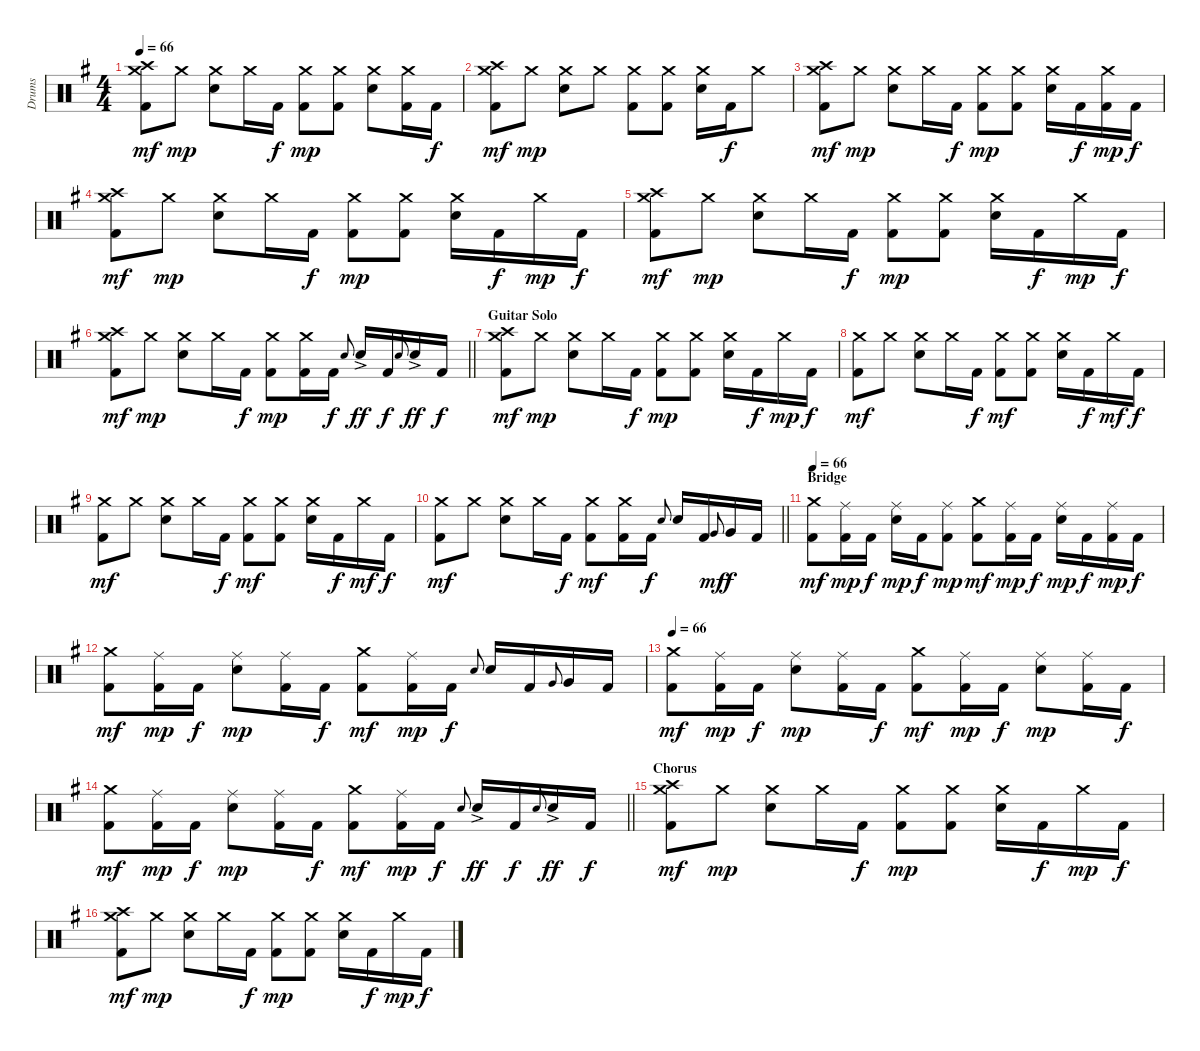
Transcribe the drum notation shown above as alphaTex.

\track ("Drums" "Drums") {instrument percussion}
\staff {score}
\articulation defaults
\ts (4 4)
\tempo 66
\clef neutral
\ks g
("Crash high (hit)" "Crash medium (hit)" "Kick (hit) 2").8{dy mf} "Crash medium (hit)".8{dy mp} ("Crash medium (hit)" "Electric Snare (hit)").8 "Crash medium (hit)".16 "Kick (hit) 2".16{dy f} ("Crash medium (hit)" "Kick (hit) 2").8{dy mp} ("Crash medium (hit)" "Kick (hit) 2").8 ("Crash medium (hit)" "Electric Snare (hit)").8 ("Crash medium (hit)" "Kick (hit) 2").16 "Kick (hit) 2".16{dy f} |
("Crash high (hit)" "Crash medium (hit)" "Kick (hit) 2").8{dy mf} "Crash medium (hit)".8{dy mp} ("Crash medium (hit)" "Electric Snare (hit)").8 "Crash medium (hit)".8 ("Crash medium (hit)" "Kick (hit) 2").8 ("Crash medium (hit)" "Kick (hit) 2").8 ("Crash medium (hit)" "Electric Snare (hit)").16 "Kick (hit) 2".16{dy f} "Crash medium (hit)".8 |
("Crash high (hit)" "Crash medium (hit)" "Kick (hit) 2").8{dy mf} "Crash medium (hit)".8{dy mp} ("Crash medium (hit)" "Electric Snare (hit)").8 "Crash medium (hit)".16 "Kick (hit) 2".16{dy f} ("Crash medium (hit)" "Kick (hit) 2").8{dy mp} ("Crash medium (hit)" "Kick (hit) 2").8 ("Crash medium (hit)" "Electric Snare (hit)").16 "Kick (hit) 2".16{dy f} ("Crash medium (hit)" "Kick (hit) 2").16{dy mp} "Kick (hit) 2".16{dy f} |
("Crash high (hit)" "Crash medium (hit)" "Kick (hit) 2").8{dy mf} "Crash medium (hit)".8{dy mp} ("Crash medium (hit)" "Electric Snare (hit)").8 "Crash medium (hit)".16 "Kick (hit) 2".16{dy f} ("Crash medium (hit)" "Kick (hit) 2").8{dy mp} ("Crash medium (hit)" "Kick (hit) 2").8 ("Crash medium (hit)" "Electric Snare (hit)").16 "Kick (hit) 2".16{dy f} "Crash medium (hit)".16{dy mp} "Kick (hit) 2".16{dy f} |
("Crash high (hit)" "Crash medium (hit)" "Kick (hit) 2").8{dy mf} "Crash medium (hit)".8{dy mp} ("Crash medium (hit)" "Electric Snare (hit)").8 "Crash medium (hit)".16 "Kick (hit) 2".16{dy f} ("Crash medium (hit)" "Kick (hit) 2").8{dy mp} ("Crash medium (hit)" "Kick (hit) 2").8 ("Crash medium (hit)" "Electric Snare (hit)").16 "Kick (hit) 2".16{dy f} "Crash medium (hit)".16{dy mp} "Kick (hit) 2".16{dy f} |
\barLineRight lightlight
("Crash high (hit)" "Crash medium (hit)" "Kick (hit) 2").8{dy mf} "Crash medium (hit)".8{dy mp} ("Crash medium (hit)" "Electric Snare (hit)").8 "Crash medium (hit)".16 "Kick (hit) 2".16{dy f} ("Crash medium (hit)" "Kick (hit) 2").8{dy mp} ("Crash medium (hit)" "Kick (hit) 2").16 "Kick (hit) 2".16{dy f} "Electric Snare (hit)".8{gr onbeat} "Electric Snare (hit)"{ac}.16{dy ff} "Kick (hit) 2".16{dy f} "Electric Snare (hit)".8{gr onbeat} "Electric Snare (hit)"{ac}.16{dy ff} "Kick (hit) 2".16{dy f} |
\section ("" "Guitar Solo")
("Crash high (hit)" "Crash medium (hit)" "Kick (hit) 2").8{dy mf} "Crash medium (hit)".8{dy mp} ("Crash medium (hit)" "Electric Snare (hit)").8 "Crash medium (hit)".16 "Kick (hit) 2".16{dy f} ("Crash medium (hit)" "Kick (hit) 2").8{dy mp} ("Crash medium (hit)" "Kick (hit) 2").8 ("Crash medium (hit)" "Electric Snare (hit)").16 "Kick (hit) 2".16{dy f} "Crash medium (hit)".16{dy mp} "Kick (hit) 2".16{dy f} |
("Crash medium (hit)" "Kick (hit) 2").8{dy mf} "Crash medium (hit)".8 ("Crash medium (hit)" "Electric Snare (hit)").8 "Crash medium (hit)".16 "Kick (hit) 2".16{dy f} ("Crash medium (hit)" "Kick (hit) 2").8{dy mf} ("Crash medium (hit)" "Kick (hit) 2").8 ("Crash medium (hit)" "Electric Snare (hit)").16 "Kick (hit) 2".16{dy f} "Crash medium (hit)".16{dy mf} "Kick (hit) 2".16{dy f} |
("Crash medium (hit)" "Kick (hit) 2").8{dy mf} "Crash medium (hit)".8 ("Crash medium (hit)" "Electric Snare (hit)").8 "Crash medium (hit)".16 "Kick (hit) 2".16{dy f} ("Crash medium (hit)" "Kick (hit) 2").8{dy mf} ("Crash medium (hit)" "Kick (hit) 2").8 ("Crash medium (hit)" "Electric Snare (hit)").16 "Kick (hit) 2".16{dy f} "Crash medium (hit)".16{dy mf} "Kick (hit) 2".16{dy f} |
\barLineRight lightlight
("Crash medium (hit)" "Kick (hit) 2").8{dy mf} "Crash medium (hit)".8 ("Crash medium (hit)" "Electric Snare (hit)").8 "Crash medium (hit)".16 "Kick (hit) 2".16{dy f} ("Crash medium (hit)" "Kick (hit) 2").8{dy mf} ("Crash medium (hit)" "Kick (hit) 2").16 "Kick (hit) 2".16{dy f} "Electric Snare (hit)".8{gr onbeat} "Electric Snare (hit)".16 "Kick (hit) 2".16 "Very Low Tom (hit)".8{gr onbeat dy mf} "Very Low Tom (hit)".16{dy f} "Kick (hit) 2".16 |
\section ("" "Bridge")
\tempo 66
("Crash medium (hit)" "Kick (hit) 2").8{dy mf} ("Ride (middle)" "Kick (hit) 2").16{dy mp} "Kick (hit) 2".16{dy f} ("Ride (middle)" "Electric Snare (hit)").16{dy mp} "Kick (hit) 2".16{dy f} ("Ride (middle)" "Kick (hit) 2").8{dy mp} ("Crash medium (hit)" "Kick (hit) 2").8{dy mf} ("Ride (middle)" "Kick (hit) 2").16{dy mp} "Kick (hit) 2".16{dy f} ("Ride (middle)" "Electric Snare (hit)").16{dy mp} "Kick (hit) 2".16{dy f} ("Ride (middle)" "Kick (hit) 2").16{dy mp} "Kick (hit) 2".16{dy f} |
("Crash medium (hit)" "Kick (hit) 2").8{dy mf} ("Ride (middle)" "Kick (hit) 2").16{dy mp} "Kick (hit) 2".16{dy f} ("Ride (middle)" "Electric Snare (hit)").8{dy mp} ("Ride (middle)" "Kick (hit) 2").16 "Kick (hit) 2".16{dy f} ("Crash medium (hit)" "Kick (hit) 2").8{dy mf} ("Ride (middle)" "Kick (hit) 2").16{dy mp} "Kick (hit) 2".16{dy f} "Electric Snare (hit)".8{gr onbeat} "Electric Snare (hit)".16 "Kick (hit) 2".16 "Very Low Tom (hit)".8{gr onbeat} "Very Low Tom (hit)".16 "Kick (hit) 2".16 |
\tempo 66
("Crash medium (hit)" "Kick (hit) 2").8{dy mf} ("Ride (middle)" "Kick (hit) 2").16{dy mp} "Kick (hit) 2".16{dy f} ("Ride (middle)" "Electric Snare (hit)").8{dy mp} ("Ride (middle)" "Kick (hit) 2").16 "Kick (hit) 2".16{dy f} ("Crash medium (hit)" "Kick (hit) 2").8{dy mf} ("Ride (middle)" "Kick (hit) 2").16{dy mp} "Kick (hit) 2".16{dy f} ("Ride (middle)" "Electric Snare (hit)").8{dy mp} ("Ride (middle)" "Kick (hit) 2").16 "Kick (hit) 2".16{dy f} |
\barLineRight lightlight
("Crash medium (hit)" "Kick (hit) 2").8{dy mf} ("Ride (middle)" "Kick (hit) 2").16{dy mp} "Kick (hit) 2".16{dy f} ("Ride (middle)" "Electric Snare (hit)").8{dy mp} ("Ride (middle)" "Kick (hit) 2").16 "Kick (hit) 2".16{dy f} ("Crash medium (hit)" "Kick (hit) 2").8{dy mf} ("Ride (middle)" "Kick (hit) 2").16{dy mp} "Kick (hit) 2".16{dy f} "Electric Snare (hit)".8{gr onbeat} "Electric Snare (hit)"{ac}.16{dy ff} "Kick (hit) 2".16{dy f} "Electric Snare (hit)".8{gr onbeat} "Electric Snare (hit)"{ac}.16{dy ff} "Kick (hit) 2".16{dy f} |
\section ("" "Chorus")
("Crash high (hit)" "Crash medium (hit)" "Kick (hit) 2").8{dy mf} "Crash medium (hit)".8{dy mp} ("Crash medium (hit)" "Electric Snare (hit)").8 "Crash medium (hit)".16 "Kick (hit) 2".16{dy f} ("Crash medium (hit)" "Kick (hit) 2").8{dy mp} ("Crash medium (hit)" "Kick (hit) 2").8 ("Crash medium (hit)" "Electric Snare (hit)").16 "Kick (hit) 2".16{dy f} "Crash medium (hit)".16{dy mp} "Kick (hit) 2".16{dy f} |
("Crash high (hit)" "Crash medium (hit)" "Kick (hit) 2").8{dy mf} "Crash medium (hit)".8{dy mp} ("Crash medium (hit)" "Electric Snare (hit)").8 "Crash medium (hit)".16 "Kick (hit) 2".16{dy f} ("Crash medium (hit)" "Kick (hit) 2").8{dy mp} ("Crash medium (hit)" "Kick (hit) 2").8 ("Crash medium (hit)" "Electric Snare (hit)").16 "Kick (hit) 2".16{dy f} "Crash medium (hit)".16{dy mp} "Kick (hit) 2".16{dy f}
